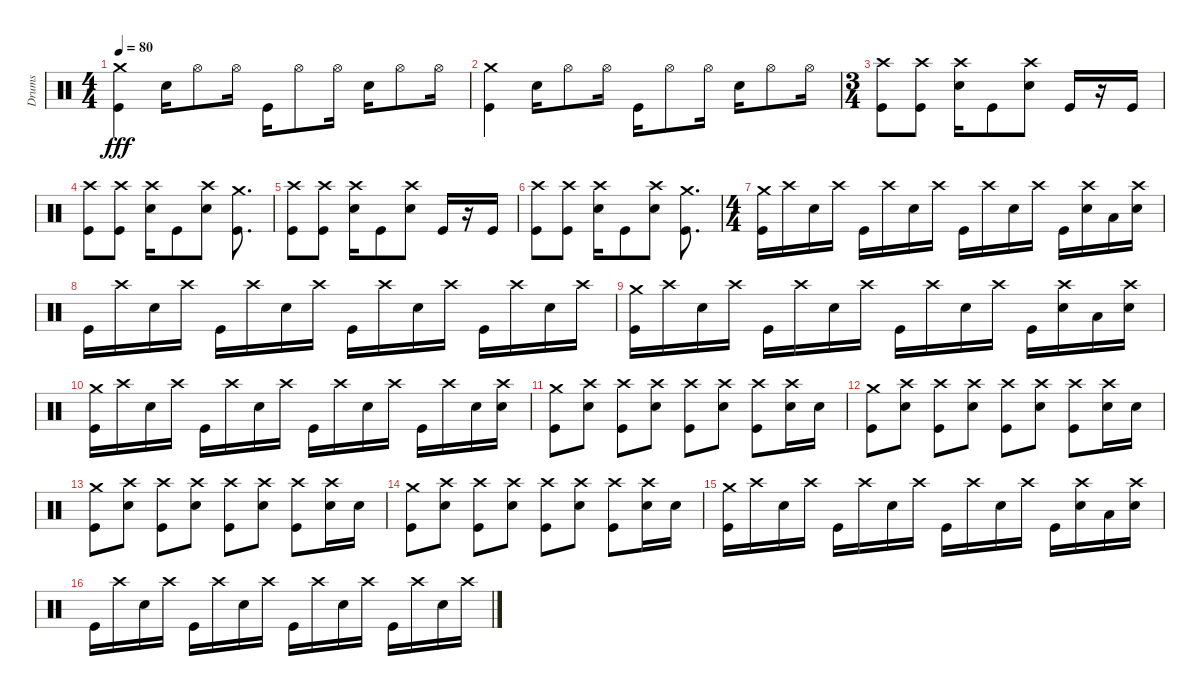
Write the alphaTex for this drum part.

\track ("Drums" "Drums") {instrument percussion}
\staff {score}
\articulation defaults
\ts (4 4)
\tempo 80
\clef neutral
\ks c
("Kick (hit)" "Crash medium (hit)").4{dy fff} "Snare (hit) 2".16 "Hi-Hat (open)".8 "Hi-Hat (open)".16 "Kick (hit)".16 "Hi-Hat (open)".8 "Hi-Hat (open)".16 "Snare (hit) 2".16 "Hi-Hat (open)".8 "Hi-Hat (open)".16 |
("Kick (hit)" "Crash medium (hit)").4 "Snare (hit) 2".16 "Hi-Hat (open)".8 "Hi-Hat (open)".16 "Kick (hit)".16 "Hi-Hat (open)".8 "Hi-Hat (open)".16 "Snare (hit) 2".16 "Hi-Hat (open)".8 "Hi-Hat (open)".16 |
\ts (3 4)
("Kick (hit)" "Crash high (hit)").8 ("Kick (hit)" "Crash high (hit)").8 ("Snare (hit) 2" "Crash high (hit)").16 "Kick (hit)".8 ("Snare (hit) 2" "Crash high (hit)").8 "Kick (hit)".16 r.16 "Kick (hit)".16 |
("Kick (hit)" "Crash high (hit)").8 ("Kick (hit)" "Crash high (hit)").8 ("Snare (hit) 2" "Crash high (hit)").16 "Kick (hit)".8 ("Snare (hit) 2" "Crash high (hit)").8 ("Kick (hit)" "Crash medium (hit)").8{d} |
("Kick (hit)" "Crash high (hit)").8 ("Kick (hit)" "Crash high (hit)").8 ("Snare (hit) 2" "Crash high (hit)").16 "Kick (hit)".8 ("Snare (hit) 2" "Crash high (hit)").8 "Kick (hit)".16 r.16 "Kick (hit)".16 |
("Kick (hit)" "Crash high (hit)").8 ("Kick (hit)" "Crash high (hit)").8 ("Snare (hit) 2" "Crash high (hit)").16 "Kick (hit)".8 ("Snare (hit) 2" "Crash high (hit)").8 ("Kick (hit)" "Crash medium (hit)").8{d} |
\ts (4 4)
("Kick (hit)" "Crash medium (hit)").16 "Crash high (hit)".16 "Snare (hit) 2".16 "Crash high (hit)".16 "Kick (hit)".16 "Crash high (hit)".16 "Snare (hit) 2".16 "Crash high (hit)".16 "Kick (hit)".16 "Crash high (hit)".16 "Snare (hit) 2".16 "Crash high (hit)".16 "Kick (hit)".16 ("Crash high (hit)" "Snare (hit) 2").16 "Low Floor Tom (hit)".16 ("Crash high (hit)" "Snare (hit) 2").16 |
"Kick (hit)".16 "Crash high (hit)".16 "Snare (hit) 2".16 "Crash high (hit)".16 "Kick (hit)".16 "Crash high (hit)".16 "Snare (hit) 2".16 "Crash high (hit)".16 "Kick (hit)".16 "Crash high (hit)".16 "Snare (hit) 2".16 "Crash high (hit)".16 "Kick (hit)".16 "Crash high (hit)".16 "Snare (hit) 2".16 "Crash high (hit)".16 |
("Kick (hit)" "Crash medium (hit)").16 "Crash high (hit)".16 "Snare (hit) 2".16 "Crash high (hit)".16 "Kick (hit)".16 "Crash high (hit)".16 "Snare (hit) 2".16 "Crash high (hit)".16 "Kick (hit)".16 "Crash high (hit)".16 "Snare (hit) 2".16 "Crash high (hit)".16 "Kick (hit)".16 ("Crash high (hit)" "Snare (hit) 2").16 "Low Floor Tom (hit)".16 ("Crash high (hit)" "Snare (hit) 2").16 |
("Kick (hit)" "Crash medium (hit)").16 "Crash high (hit)".16 "Snare (hit) 2".16 "Crash high (hit)".16 "Kick (hit)".16 "Crash high (hit)".16 "Snare (hit) 2".16 "Crash high (hit)".16 "Kick (hit)".16 "Crash high (hit)".16 "Snare (hit) 2".16 "Crash high (hit)".16 "Kick (hit)".16 "Crash high (hit)".16 "Snare (hit) 2".16 ("Crash high (hit)" "Snare (hit) 2").16 |
("Kick (hit)" "Crash medium (hit)").8 ("Snare (hit) 2" "Crash high (hit)").8 ("Kick (hit)" "Crash high (hit)").8 ("Snare (hit) 2" "Crash high (hit)").8 ("Kick (hit)" "Crash high (hit)").8 ("Snare (hit) 2" "Crash high (hit)").8 ("Kick (hit)" "Crash high (hit)").8 ("Snare (hit) 2" "Crash high (hit)").16 "Snare (hit) 2".16 |
("Kick (hit)" "Crash medium (hit)").8 ("Snare (hit) 2" "Crash high (hit)").8 ("Kick (hit)" "Crash high (hit)").8 ("Snare (hit) 2" "Crash high (hit)").8 ("Kick (hit)" "Crash high (hit)").8 ("Snare (hit) 2" "Crash high (hit)").8 ("Kick (hit)" "Crash high (hit)").8 ("Snare (hit) 2" "Crash high (hit)").16 "Snare (hit) 2".16 |
("Kick (hit)" "Crash medium (hit)").8 ("Snare (hit) 2" "Crash high (hit)").8 ("Kick (hit)" "Crash high (hit)").8 ("Snare (hit) 2" "Crash high (hit)").8 ("Kick (hit)" "Crash high (hit)").8 ("Snare (hit) 2" "Crash high (hit)").8 ("Kick (hit)" "Crash high (hit)").8 ("Snare (hit) 2" "Crash high (hit)").16 "Snare (hit) 2".16 |
("Kick (hit)" "Crash medium (hit)").8 ("Snare (hit) 2" "Crash high (hit)").8 ("Kick (hit)" "Crash high (hit)").8 ("Snare (hit) 2" "Crash high (hit)").8 ("Kick (hit)" "Crash high (hit)").8 ("Snare (hit) 2" "Crash high (hit)").8 ("Kick (hit)" "Crash high (hit)").8 ("Snare (hit) 2" "Crash high (hit)").16 "Snare (hit) 2".16 |
("Kick (hit)" "Crash medium (hit)").16 "Crash high (hit)".16 "Snare (hit) 2".16 "Crash high (hit)".16 "Kick (hit)".16 "Crash high (hit)".16 "Snare (hit) 2".16 "Crash high (hit)".16 "Kick (hit)".16 "Crash high (hit)".16 "Snare (hit) 2".16 "Crash high (hit)".16 "Kick (hit)".16 ("Crash high (hit)" "Snare (hit) 2").16 "Low Floor Tom (hit)".16 ("Crash high (hit)" "Snare (hit) 2").16 |
"Kick (hit)".16 "Crash high (hit)".16 "Snare (hit) 2".16 "Crash high (hit)".16 "Kick (hit)".16 "Crash high (hit)".16 "Snare (hit) 2".16 "Crash high (hit)".16 "Kick (hit)".16 "Crash high (hit)".16 "Snare (hit) 2".16 "Crash high (hit)".16 "Kick (hit)".16 "Crash high (hit)".16 "Snare (hit) 2".16 "Crash high (hit)".16
